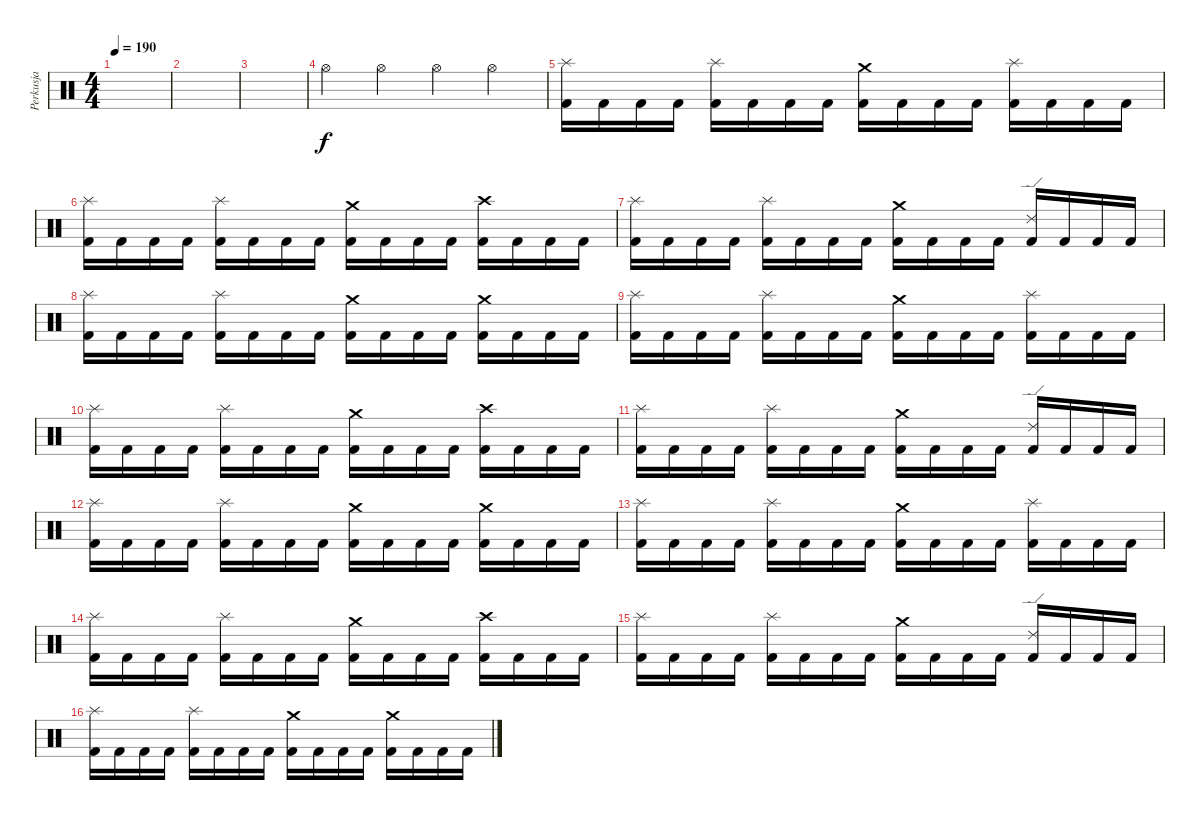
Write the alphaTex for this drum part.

\track ("Perkusja" "Perkusja") {instrument percussion}
\staff {score}
\articulation defaults
\ts (4 4)
\tempo 190
\clef neutral
\ks c
|
|
|
"Hi-Hat (open)".4 "Hi-Hat (open)".4 "Hi-Hat (open)".4 "Hi-Hat (open)".4 |
("Splash (hit)" "Kick (hit) 2").16{volume 12} "Kick (hit) 2".16 "Kick (hit) 2".16 "Kick (hit) 2".16 ("Splash (hit)" "Kick (hit) 2").16 "Kick (hit) 2".16 "Kick (hit) 2".16 "Kick (hit) 2".16 ("Crash medium (hit)" "Kick (hit) 2").16 "Kick (hit) 2".16 "Kick (hit) 2".16 "Kick (hit) 2".16 ("Splash (hit)" "Kick (hit) 2").16 "Kick (hit) 2".16 "Kick (hit) 2".16 "Kick (hit) 2".16 |
("Splash (hit)" "Kick (hit) 2").16 "Kick (hit) 2".16 "Kick (hit) 2".16 "Kick (hit) 2".16 ("Splash (hit)" "Kick (hit) 2").16 "Kick (hit) 2".16 "Kick (hit) 2".16 "Kick (hit) 2".16 ("Crash medium (hit)" "Kick (hit) 2").16 "Kick (hit) 2".16 "Kick (hit) 2".16 "Kick (hit) 2".16 ("Crash high (hit)" "Kick (hit) 2").16 "Kick (hit) 2".16 "Kick (hit) 2".16 "Kick (hit) 2".16 |
("Splash (hit)" "Kick (hit) 2").16 "Kick (hit) 2".16 "Kick (hit) 2".16 "Kick (hit) 2".16 ("Splash (hit)" "Kick (hit) 2").16 "Kick (hit) 2".16 "Kick (hit) 2".16 "Kick (hit) 2".16 ("Crash medium (hit)" "Kick (hit) 2").16 "Kick (hit) 2".16 "Kick (hit) 2".16 "Kick (hit) 2".16 ("Ride (edge) 2" "Kick (hit) 2").16 "Kick (hit) 2".16 "Kick (hit) 2".16 "Kick (hit) 2".16 |
("Splash (hit)" "Kick (hit) 2").16 "Kick (hit) 2".16 "Kick (hit) 2".16 "Kick (hit) 2".16 ("Splash (hit)" "Kick (hit) 2").16 "Kick (hit) 2".16 "Kick (hit) 2".16 "Kick (hit) 2".16 ("Crash medium (hit)" "Kick (hit) 2").16 "Kick (hit) 2".16 "Kick (hit) 2".16 "Kick (hit) 2".16 ("Crash medium (hit)" "Kick (hit) 2").16 "Kick (hit) 2".16 "Kick (hit) 2".16 "Kick (hit) 2".16 |
("Splash (hit)" "Kick (hit) 2").16 "Kick (hit) 2".16 "Kick (hit) 2".16 "Kick (hit) 2".16 ("Splash (hit)" "Kick (hit) 2").16 "Kick (hit) 2".16 "Kick (hit) 2".16 "Kick (hit) 2".16 ("Crash medium (hit)" "Kick (hit) 2").16 "Kick (hit) 2".16 "Kick (hit) 2".16 "Kick (hit) 2".16 ("Splash (hit)" "Kick (hit) 2").16 "Kick (hit) 2".16 "Kick (hit) 2".16 "Kick (hit) 2".16 |
("Splash (hit)" "Kick (hit) 2").16 "Kick (hit) 2".16 "Kick (hit) 2".16 "Kick (hit) 2".16 ("Splash (hit)" "Kick (hit) 2").16 "Kick (hit) 2".16 "Kick (hit) 2".16 "Kick (hit) 2".16 ("Crash medium (hit)" "Kick (hit) 2").16 "Kick (hit) 2".16 "Kick (hit) 2".16 "Kick (hit) 2".16 ("Crash high (hit)" "Kick (hit) 2").16 "Kick (hit) 2".16 "Kick (hit) 2".16 "Kick (hit) 2".16 |
("Splash (hit)" "Kick (hit) 2").16 "Kick (hit) 2".16 "Kick (hit) 2".16 "Kick (hit) 2".16 ("Splash (hit)" "Kick (hit) 2").16 "Kick (hit) 2".16 "Kick (hit) 2".16 "Kick (hit) 2".16 ("Crash medium (hit)" "Kick (hit) 2").16 "Kick (hit) 2".16 "Kick (hit) 2".16 "Kick (hit) 2".16 ("Ride (edge) 2" "Kick (hit) 2").16 "Kick (hit) 2".16 "Kick (hit) 2".16 "Kick (hit) 2".16 |
("Splash (hit)" "Kick (hit) 2").16 "Kick (hit) 2".16 "Kick (hit) 2".16 "Kick (hit) 2".16 ("Splash (hit)" "Kick (hit) 2").16 "Kick (hit) 2".16 "Kick (hit) 2".16 "Kick (hit) 2".16 ("Crash medium (hit)" "Kick (hit) 2").16 "Kick (hit) 2".16 "Kick (hit) 2".16 "Kick (hit) 2".16 ("Crash medium (hit)" "Kick (hit) 2").16 "Kick (hit) 2".16 "Kick (hit) 2".16 "Kick (hit) 2".16 |
("Splash (hit)" "Kick (hit) 2").16 "Kick (hit) 2".16 "Kick (hit) 2".16 "Kick (hit) 2".16 ("Splash (hit)" "Kick (hit) 2").16 "Kick (hit) 2".16 "Kick (hit) 2".16 "Kick (hit) 2".16 ("Crash medium (hit)" "Kick (hit) 2").16 "Kick (hit) 2".16 "Kick (hit) 2".16 "Kick (hit) 2".16 ("Splash (hit)" "Kick (hit) 2").16 "Kick (hit) 2".16 "Kick (hit) 2".16 "Kick (hit) 2".16 |
("Splash (hit)" "Kick (hit) 2").16 "Kick (hit) 2".16 "Kick (hit) 2".16 "Kick (hit) 2".16 ("Splash (hit)" "Kick (hit) 2").16 "Kick (hit) 2".16 "Kick (hit) 2".16 "Kick (hit) 2".16 ("Crash medium (hit)" "Kick (hit) 2").16 "Kick (hit) 2".16 "Kick (hit) 2".16 "Kick (hit) 2".16 ("Crash high (hit)" "Kick (hit) 2").16 "Kick (hit) 2".16 "Kick (hit) 2".16 "Kick (hit) 2".16 |
("Splash (hit)" "Kick (hit) 2").16 "Kick (hit) 2".16 "Kick (hit) 2".16 "Kick (hit) 2".16 ("Splash (hit)" "Kick (hit) 2").16 "Kick (hit) 2".16 "Kick (hit) 2".16 "Kick (hit) 2".16 ("Crash medium (hit)" "Kick (hit) 2").16 "Kick (hit) 2".16 "Kick (hit) 2".16 "Kick (hit) 2".16 ("Ride (edge) 2" "Kick (hit) 2").16 "Kick (hit) 2".16 "Kick (hit) 2".16 "Kick (hit) 2".16 |
("Splash (hit)" "Kick (hit) 2").16 "Kick (hit) 2".16 "Kick (hit) 2".16 "Kick (hit) 2".16 ("Splash (hit)" "Kick (hit) 2").16 "Kick (hit) 2".16 "Kick (hit) 2".16 "Kick (hit) 2".16 ("Crash medium (hit)" "Kick (hit) 2").16 "Kick (hit) 2".16 "Kick (hit) 2".16 "Kick (hit) 2".16 ("Crash medium (hit)" "Kick (hit) 2").16 "Kick (hit) 2".16 "Kick (hit) 2".16 "Kick (hit) 2".16
